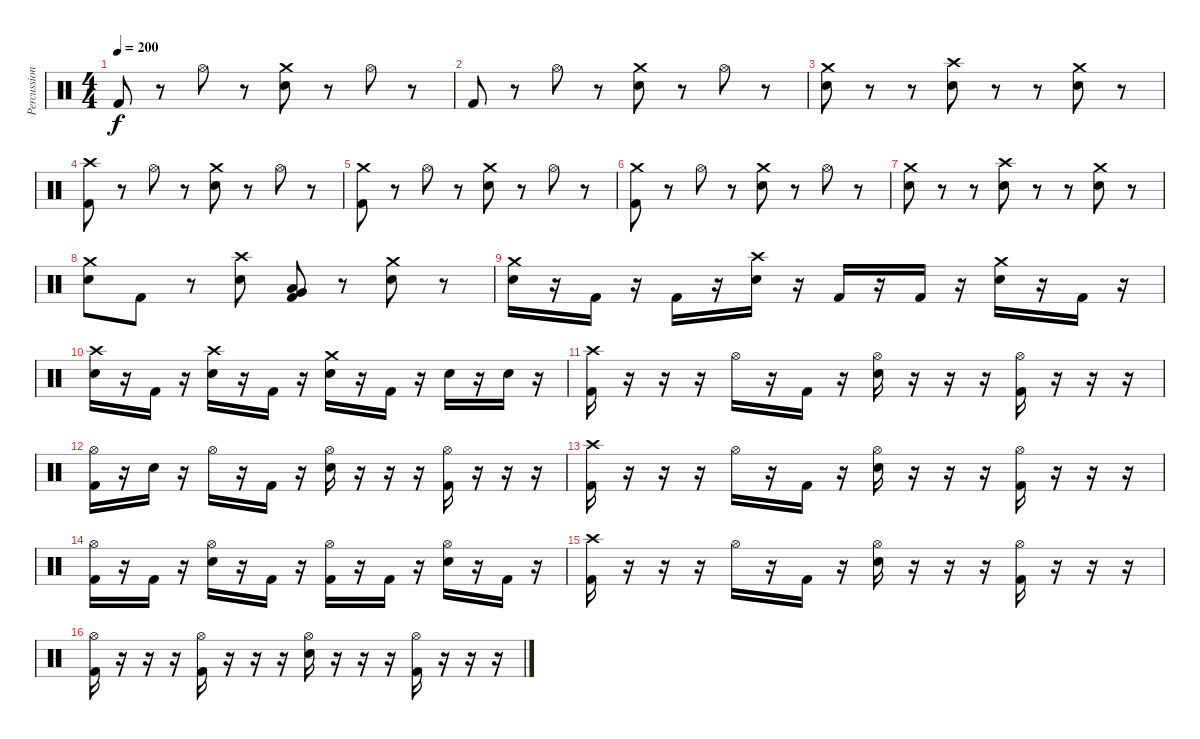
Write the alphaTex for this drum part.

\track ("Percussion" "Percussion") {instrument percussion}
\staff {score}
\articulation defaults
\ts (4 4)
\tempo 200
\clef neutral
\ks c "Kick (hit) 2".8{dy f}
r.8 "Hi-Hat (open)".8 r.8 ("Crash medium (hit)" "Snare (hit) 2").8 r.8 "Hi-Hat (open)".8 r.8 |
"Kick (hit) 2".8 r.8 "Hi-Hat (open)".8 r.8 ("Crash medium (hit)" "Snare (hit) 2").8 r.8 "Hi-Hat (open)".8 r.8 |
("Crash medium (hit)" "Snare (hit) 2").8 r.8 r.8 ("Crash high (hit)" "Snare (hit) 2").8 r.8 r.8 ("Crash medium (hit)" "Snare (hit) 2").8 r.8 |
("Crash high (hit)" "Kick (hit) 2").8 r.8 "Hi-Hat (open)".8 r.8 ("Crash medium (hit)" "Snare (hit) 2").8 r.8 "Hi-Hat (open)".8 r.8 |
("Crash medium (hit)" "Kick (hit) 2").8 r.8 "Hi-Hat (open)".8 r.8 ("Crash medium (hit)" "Snare (hit) 2").8 r.8 "Hi-Hat (open)".8 r.8 |
("Crash medium (hit)" "Kick (hit) 2").8 r.8 "Hi-Hat (open)".8 r.8 ("Crash medium (hit)" "Snare (hit) 2").8 r.8 "Hi-Hat (open)".8 r.8 |
("Crash medium (hit)" "Snare (hit) 2").8 r.8 r.8 ("Crash high (hit)" "Snare (hit) 2").8 r.8 r.8 ("Crash medium (hit)" "Snare (hit) 2").8 r.8 |
("Crash medium (hit)" "Snare (hit) 2").8 "Kick (hit) 2".8 r.8 ("Crash high (hit)" "Snare (hit) 2").8 ("Very Low Tom (hit)" "Low Floor Tom (hit)" "Kick (hit) 2").8 r.8 ("Crash medium (hit)" "Snare (hit) 2").8 r.8 |
("Crash medium (hit)" "Snare (hit) 2").16 r.16 "Kick (hit) 2".16 r.16 "Kick (hit) 2".16 r.16 ("Crash high (hit)" "Snare (hit) 2").16 r.16 "Kick (hit) 2".16 r.16 "Kick (hit) 2".16 r.16 ("Crash medium (hit)" "Snare (hit) 2").16 r.16 "Kick (hit) 2".16 r.16 |
("Crash high (hit)" "Snare (hit) 2").16 r.16 "Kick (hit) 2".16 r.16 ("Crash high (hit)" "Snare (hit) 2").16 r.16 "Kick (hit) 2".16 r.16 ("Crash medium (hit)" "Snare (hit) 2").16 r.16 "Kick (hit) 2".16 r.16 "Snare (hit) 2".16 r.16 "Snare (hit) 2".16 r.16 |
("Crash high (hit)" "Kick (hit) 2").16 r.16 r.16 r.16 "Hi-Hat (open)".16 r.16 "Kick (hit) 2".16 r.16 ("Hi-Hat (open)" "Snare (hit) 2").16 r.16 r.16 r.16 ("Hi-Hat (open)" "Kick (hit) 2").16 r.16 r.16 r.16 |
("Hi-Hat (open)" "Kick (hit) 2").16 r.16 "Snare (hit) 2".16 r.16 "Hi-Hat (open)".16 r.16 "Kick (hit) 2".16 r.16 ("Hi-Hat (open)" "Snare (hit) 2").16 r.16 r.16 r.16 ("Hi-Hat (open)" "Kick (hit) 2").16 r.16 r.16 r.16 |
("Crash high (hit)" "Kick (hit) 2").16 r.16 r.16 r.16 "Hi-Hat (open)".16 r.16 "Kick (hit) 2".16 r.16 ("Hi-Hat (open)" "Snare (hit) 2").16 r.16 r.16 r.16 ("Hi-Hat (open)" "Kick (hit) 2").16 r.16 r.16 r.16 |
("Hi-Hat (open)" "Kick (hit) 2").16 r.16 "Kick (hit) 2".16 r.16 ("Hi-Hat (open)" "Snare (hit) 2").16 r.16 "Kick (hit) 2".16 r.16 ("Hi-Hat (open)" "Kick (hit) 2").16 r.16 "Kick (hit) 2".16 r.16 ("Hi-Hat (open)" "Snare (hit) 2").16 r.16 "Kick (hit) 2".16 r.16 |
("Crash high (hit)" "Kick (hit) 2").16 r.16 r.16 r.16 "Hi-Hat (open)".16 r.16 "Kick (hit) 2".16 r.16 ("Hi-Hat (open)" "Snare (hit) 2").16 r.16 r.16 r.16 ("Hi-Hat (open)" "Kick (hit) 2").16 r.16 r.16 r.16 |
("Hi-Hat (open)" "Kick (hit) 2").16 r.16 r.16 r.16 ("Hi-Hat (open)" "Kick (hit) 2").16 r.16 r.16 r.16 ("Hi-Hat (open)" "Snare (hit) 2").16 r.16 r.16 r.16 ("Hi-Hat (open)" "Kick (hit) 2").16 r.16 r.16 r.16
